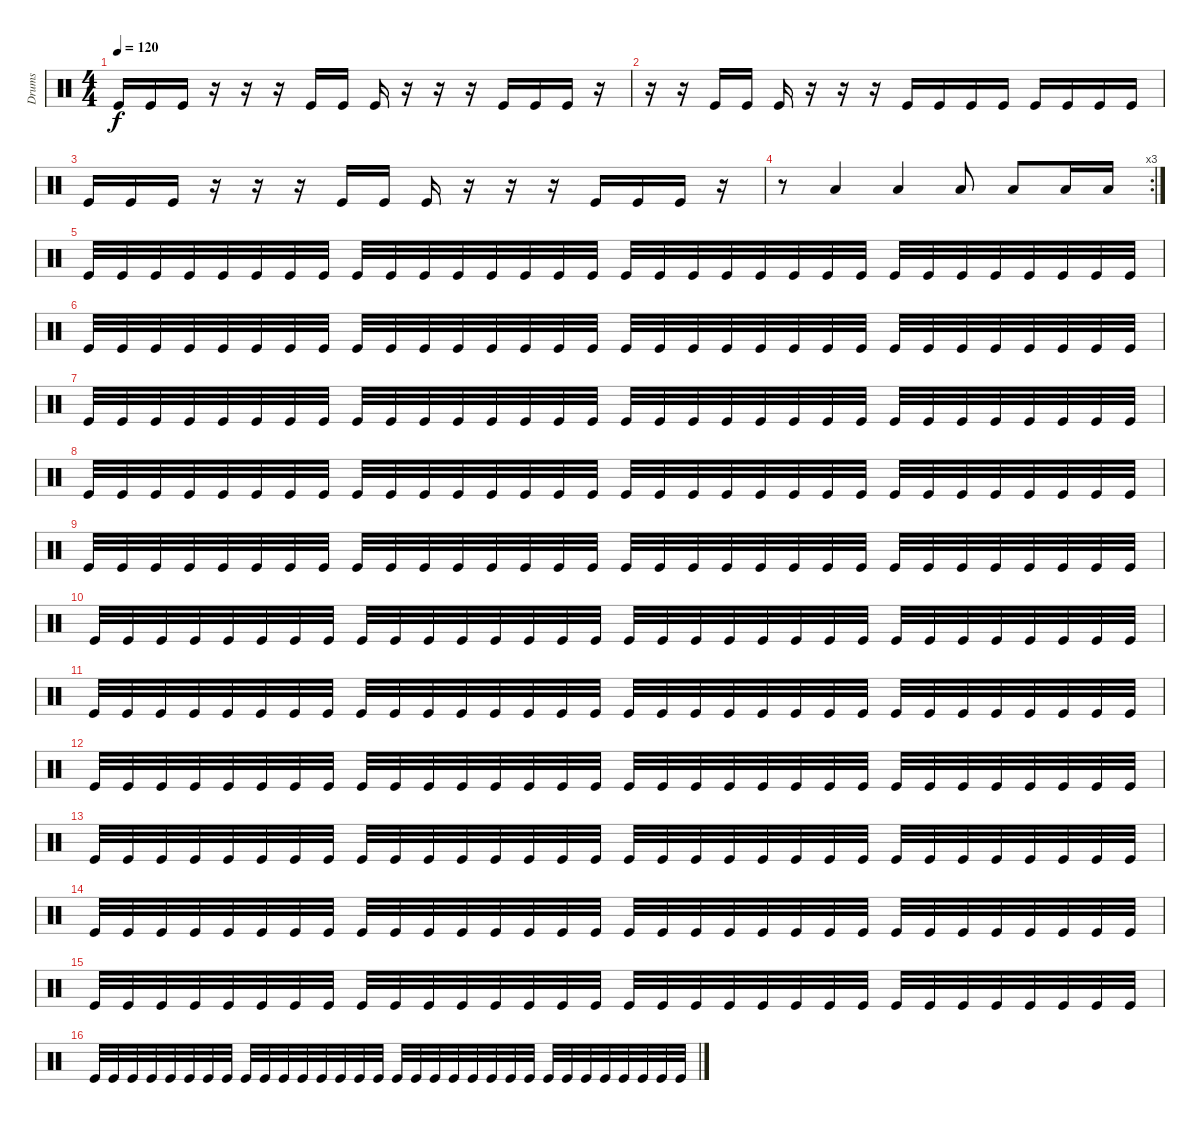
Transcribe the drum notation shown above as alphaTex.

\track ("Drums" "Drums") {instrument percussion}
\staff {score}
\articulation defaults
\ts (4 4)
\tempo 120
\clef neutral
\ks c "Kick (hit)".16{dy f} "Kick (hit)".16 "Kick (hit)".16
r.16 r.16 r.16 "Kick (hit)".16 "Kick (hit)".16 "Kick (hit)".16 r.16 r.16 r.16 "Kick (hit)".16 "Kick (hit)".16 "Kick (hit)".16 r.16 |
r.16 r.16 "Kick (hit)".16 "Kick (hit)".16 "Kick (hit)".16 r.16 r.16 r.16 "Kick (hit)".16 "Kick (hit)".16 "Kick (hit)".16 "Kick (hit)".16 "Kick (hit)".16 "Kick (hit)".16 "Kick (hit)".16 "Kick (hit)".16 |
"Kick (hit)".16 "Kick (hit)".16 "Kick (hit)".16 r.16 r.16 r.16 "Kick (hit)".16 "Kick (hit)".16 "Kick (hit)".16 r.16 r.16 r.16 "Kick (hit)".16 "Kick (hit)".16 "Kick (hit)".16 r.16 |
\rc 3
r.8 "Low Floor Tom (hit)".4 "Low Tom (hit)".4 "Low Floor Tom (hit)".8 "Low Floor Tom (hit)".8 "Low Floor Tom (hit)".16 "Low Floor Tom (hit)".16 |
"Kick (hit)".32 "Kick (hit)".32 "Kick (hit)".32 "Kick (hit)".32 "Kick (hit)".32 "Kick (hit)".32 "Kick (hit)".32 "Kick (hit)".32 "Kick (hit)".32 "Kick (hit)".32 "Kick (hit)".32 "Kick (hit)".32 "Kick (hit)".32 "Kick (hit)".32 "Kick (hit)".32 "Kick (hit)".32 "Kick (hit)".32 "Kick (hit)".32 "Kick (hit)".32 "Kick (hit)".32 "Kick (hit)".32 "Kick (hit)".32 "Kick (hit)".32 "Kick (hit)".32 "Kick (hit)".32 "Kick (hit)".32 "Kick (hit)".32 "Kick (hit)".32 "Kick (hit)".32 "Kick (hit)".32 "Kick (hit)".32 "Kick (hit)".32 |
"Kick (hit)".32 "Kick (hit)".32 "Kick (hit)".32 "Kick (hit)".32 "Kick (hit)".32 "Kick (hit)".32 "Kick (hit)".32 "Kick (hit)".32 "Kick (hit)".32 "Kick (hit)".32 "Kick (hit)".32 "Kick (hit)".32 "Kick (hit)".32 "Kick (hit)".32 "Kick (hit)".32 "Kick (hit)".32 "Kick (hit)".32 "Kick (hit)".32 "Kick (hit)".32 "Kick (hit)".32 "Kick (hit)".32 "Kick (hit)".32 "Kick (hit)".32 "Kick (hit)".32 "Kick (hit)".32 "Kick (hit)".32 "Kick (hit)".32 "Kick (hit)".32 "Kick (hit)".32 "Kick (hit)".32 "Kick (hit)".32 "Kick (hit)".32 |
"Kick (hit)".32 "Kick (hit)".32 "Kick (hit)".32 "Kick (hit)".32 "Kick (hit)".32 "Kick (hit)".32 "Kick (hit)".32 "Kick (hit)".32 "Kick (hit)".32 "Kick (hit)".32 "Kick (hit)".32 "Kick (hit)".32 "Kick (hit)".32 "Kick (hit)".32 "Kick (hit)".32 "Kick (hit)".32 "Kick (hit)".32 "Kick (hit)".32 "Kick (hit)".32 "Kick (hit)".32 "Kick (hit)".32 "Kick (hit)".32 "Kick (hit)".32 "Kick (hit)".32 "Kick (hit)".32 "Kick (hit)".32 "Kick (hit)".32 "Kick (hit)".32 "Kick (hit)".32 "Kick (hit)".32 "Kick (hit)".32 "Kick (hit)".32 |
"Kick (hit)".32 "Kick (hit)".32 "Kick (hit)".32 "Kick (hit)".32 "Kick (hit)".32 "Kick (hit)".32 "Kick (hit)".32 "Kick (hit)".32 "Kick (hit)".32 "Kick (hit)".32 "Kick (hit)".32 "Kick (hit)".32 "Kick (hit)".32 "Kick (hit)".32 "Kick (hit)".32 "Kick (hit)".32 "Kick (hit)".32 "Kick (hit)".32 "Kick (hit)".32 "Kick (hit)".32 "Kick (hit)".32 "Kick (hit)".32 "Kick (hit)".32 "Kick (hit)".32 "Kick (hit)".32 "Kick (hit)".32 "Kick (hit)".32 "Kick (hit)".32 "Kick (hit)".32 "Kick (hit)".32 "Kick (hit)".32 "Kick (hit)".32 |
"Kick (hit)".32 "Kick (hit)".32 "Kick (hit)".32 "Kick (hit)".32 "Kick (hit)".32 "Kick (hit)".32 "Kick (hit)".32 "Kick (hit)".32 "Kick (hit)".32 "Kick (hit)".32 "Kick (hit)".32 "Kick (hit)".32 "Kick (hit)".32 "Kick (hit)".32 "Kick (hit)".32 "Kick (hit)".32 "Kick (hit)".32 "Kick (hit)".32 "Kick (hit)".32 "Kick (hit)".32 "Kick (hit)".32 "Kick (hit)".32 "Kick (hit)".32 "Kick (hit)".32 "Kick (hit)".32 "Kick (hit)".32 "Kick (hit)".32 "Kick (hit)".32 "Kick (hit)".32 "Kick (hit)".32 "Kick (hit)".32 "Kick (hit)".32 |
"Kick (hit)".32 "Kick (hit)".32 "Kick (hit)".32 "Kick (hit)".32 "Kick (hit)".32 "Kick (hit)".32 "Kick (hit)".32 "Kick (hit)".32 "Kick (hit)".32 "Kick (hit)".32 "Kick (hit)".32 "Kick (hit)".32 "Kick (hit)".32 "Kick (hit)".32 "Kick (hit)".32 "Kick (hit)".32 "Kick (hit)".32 "Kick (hit)".32 "Kick (hit)".32 "Kick (hit)".32 "Kick (hit)".32 "Kick (hit)".32 "Kick (hit)".32 "Kick (hit)".32 "Kick (hit)".32 "Kick (hit)".32 "Kick (hit)".32 "Kick (hit)".32 "Kick (hit)".32 "Kick (hit)".32 "Kick (hit)".32 "Kick (hit)".32 |
"Kick (hit)".32 "Kick (hit)".32 "Kick (hit)".32 "Kick (hit)".32 "Kick (hit)".32 "Kick (hit)".32 "Kick (hit)".32 "Kick (hit)".32 "Kick (hit)".32 "Kick (hit)".32 "Kick (hit)".32 "Kick (hit)".32 "Kick (hit)".32 "Kick (hit)".32 "Kick (hit)".32 "Kick (hit)".32 "Kick (hit)".32 "Kick (hit)".32 "Kick (hit)".32 "Kick (hit)".32 "Kick (hit)".32 "Kick (hit)".32 "Kick (hit)".32 "Kick (hit)".32 "Kick (hit)".32 "Kick (hit)".32 "Kick (hit)".32 "Kick (hit)".32 "Kick (hit)".32 "Kick (hit)".32 "Kick (hit)".32 "Kick (hit)".32 |
"Kick (hit)".32 "Kick (hit)".32 "Kick (hit)".32 "Kick (hit)".32 "Kick (hit)".32 "Kick (hit)".32 "Kick (hit)".32 "Kick (hit)".32 "Kick (hit)".32 "Kick (hit)".32 "Kick (hit)".32 "Kick (hit)".32 "Kick (hit)".32 "Kick (hit)".32 "Kick (hit)".32 "Kick (hit)".32 "Kick (hit)".32 "Kick (hit)".32 "Kick (hit)".32 "Kick (hit)".32 "Kick (hit)".32 "Kick (hit)".32 "Kick (hit)".32 "Kick (hit)".32 "Kick (hit)".32 "Kick (hit)".32 "Kick (hit)".32 "Kick (hit)".32 "Kick (hit)".32 "Kick (hit)".32 "Kick (hit)".32 "Kick (hit)".32 |
"Kick (hit)".32 "Kick (hit)".32 "Kick (hit)".32 "Kick (hit)".32 "Kick (hit)".32 "Kick (hit)".32 "Kick (hit)".32 "Kick (hit)".32 "Kick (hit)".32 "Kick (hit)".32 "Kick (hit)".32 "Kick (hit)".32 "Kick (hit)".32 "Kick (hit)".32 "Kick (hit)".32 "Kick (hit)".32 "Kick (hit)".32 "Kick (hit)".32 "Kick (hit)".32 "Kick (hit)".32 "Kick (hit)".32 "Kick (hit)".32 "Kick (hit)".32 "Kick (hit)".32 "Kick (hit)".32 "Kick (hit)".32 "Kick (hit)".32 "Kick (hit)".32 "Kick (hit)".32 "Kick (hit)".32 "Kick (hit)".32 "Kick (hit)".32 |
"Kick (hit)".32 "Kick (hit)".32 "Kick (hit)".32 "Kick (hit)".32 "Kick (hit)".32 "Kick (hit)".32 "Kick (hit)".32 "Kick (hit)".32 "Kick (hit)".32 "Kick (hit)".32 "Kick (hit)".32 "Kick (hit)".32 "Kick (hit)".32 "Kick (hit)".32 "Kick (hit)".32 "Kick (hit)".32 "Kick (hit)".32 "Kick (hit)".32 "Kick (hit)".32 "Kick (hit)".32 "Kick (hit)".32 "Kick (hit)".32 "Kick (hit)".32 "Kick (hit)".32 "Kick (hit)".32 "Kick (hit)".32 "Kick (hit)".32 "Kick (hit)".32 "Kick (hit)".32 "Kick (hit)".32 "Kick (hit)".32 "Kick (hit)".32 |
"Kick (hit)".32 "Kick (hit)".32 "Kick (hit)".32 "Kick (hit)".32 "Kick (hit)".32 "Kick (hit)".32 "Kick (hit)".32 "Kick (hit)".32 "Kick (hit)".32 "Kick (hit)".32 "Kick (hit)".32 "Kick (hit)".32 "Kick (hit)".32 "Kick (hit)".32 "Kick (hit)".32 "Kick (hit)".32 "Kick (hit)".32 "Kick (hit)".32 "Kick (hit)".32 "Kick (hit)".32 "Kick (hit)".32 "Kick (hit)".32 "Kick (hit)".32 "Kick (hit)".32 "Kick (hit)".32 "Kick (hit)".32 "Kick (hit)".32 "Kick (hit)".32 "Kick (hit)".32 "Kick (hit)".32 "Kick (hit)".32 "Kick (hit)".32 |
"Kick (hit)".32 "Kick (hit)".32 "Kick (hit)".32 "Kick (hit)".32 "Kick (hit)".32 "Kick (hit)".32 "Kick (hit)".32 "Kick (hit)".32 "Kick (hit)".32 "Kick (hit)".32 "Kick (hit)".32 "Kick (hit)".32 "Kick (hit)".32 "Kick (hit)".32 "Kick (hit)".32 "Kick (hit)".32 "Kick (hit)".32 "Kick (hit)".32 "Kick (hit)".32 "Kick (hit)".32 "Kick (hit)".32 "Kick (hit)".32 "Kick (hit)".32 "Kick (hit)".32 "Kick (hit)".32 "Kick (hit)".32 "Kick (hit)".32 "Kick (hit)".32 "Kick (hit)".32 "Kick (hit)".32 "Kick (hit)".32 "Kick (hit)".32
